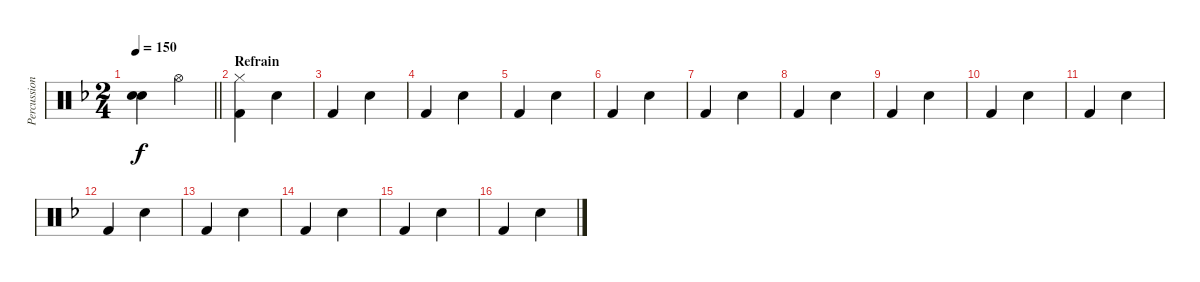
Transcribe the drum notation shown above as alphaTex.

\track ("Percussions" "Percussion") {instrument percussion}
\staff {score}
\articulation defaults
\ts (2 4)
\tempo 150
\clef neutral
\barLineRight lightlight
\ks f
("Snare (hit)"{t} "Snare (hit)"{t}).4{dy f} "Hi-Hat (open)".4 |
\section ("" "Refrain")
("Hi-Hat (closed)" "Kick (hit) 2").4 "Snare (hit) 2".4 |
"Kick (hit) 2".4 "Snare (hit) 2".4 |
"Kick (hit) 2".4 "Snare (hit) 2".4 |
"Kick (hit) 2".4 "Snare (hit) 2".4 |
"Kick (hit) 2".4 "Snare (hit) 2".4 |
"Kick (hit) 2".4 "Snare (hit) 2".4 |
"Kick (hit) 2".4 "Snare (hit) 2".4 |
"Kick (hit) 2".4 "Snare (hit) 2".4 |
"Kick (hit) 2".4 "Snare (hit) 2".4 |
"Kick (hit) 2".4 "Snare (hit) 2".4 |
"Kick (hit) 2".4 "Snare (hit) 2".4 |
"Kick (hit) 2".4 "Snare (hit) 2".4 |
"Kick (hit) 2".4 "Snare (hit) 2".4 |
"Kick (hit) 2".4 "Snare (hit) 2".4 |
"Kick (hit) 2".4 "Snare (hit) 2".4
